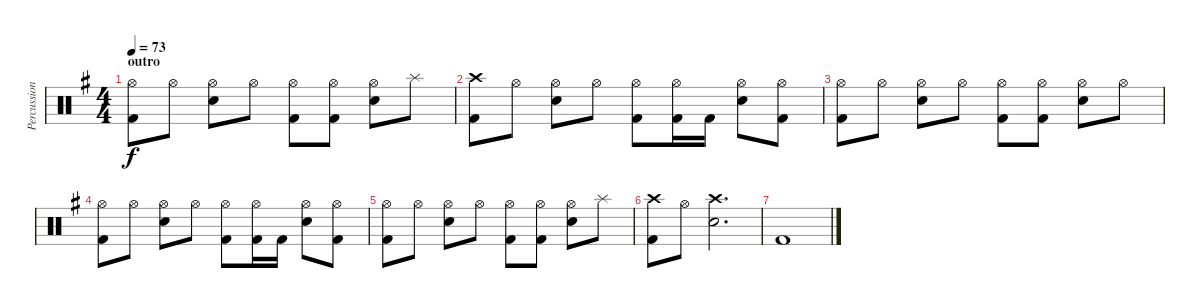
\track ("Percussions" "Percussion") {instrument percussion}
\staff {score}
\articulation defaults
\ts (4 4)
\section ("" "outro")
\tempo 73
\clef neutral
\ks g
("Hi-Hat (open)" "Kick (hit) 2").8{dy f} "Hi-Hat (open)".8 ("Hi-Hat (open)" "Snare (hit) 2").8 "Hi-Hat (open)".8 ("Hi-Hat (open)" "Kick (hit) 2").8 ("Hi-Hat (open)" "Kick (hit) 2").8 ("Hi-Hat (open)" "Snare (hit) 2").8 "Splash (hit)".8 |
("Crash high (hit)" "Kick (hit) 2").8 "Hi-Hat (open)".8 ("Hi-Hat (open)" "Snare (hit) 2").8 "Hi-Hat (open)".8 ("Hi-Hat (open)" "Kick (hit) 2").8 ("Hi-Hat (open)" "Kick (hit) 2").16 "Kick (hit) 2".16 ("Hi-Hat (open)" "Snare (hit) 2").8 ("Hi-Hat (open)" "Kick (hit) 2").8 |
("Hi-Hat (open)" "Kick (hit) 2").8 "Hi-Hat (open)".8 ("Hi-Hat (open)" "Snare (hit) 2").8 "Hi-Hat (open)".8 ("Hi-Hat (open)" "Kick (hit) 2").8 ("Hi-Hat (open)" "Kick (hit) 2").8 ("Hi-Hat (open)" "Snare (hit) 2").8 "Hi-Hat (open)".8 |
("Hi-Hat (open)" "Kick (hit) 2").8 "Hi-Hat (open)".8 ("Hi-Hat (open)" "Snare (hit) 2").8 "Hi-Hat (open)".8 ("Hi-Hat (open)" "Kick (hit) 2").8 ("Hi-Hat (open)" "Kick (hit) 2").16 "Kick (hit) 2".16 ("Hi-Hat (open)" "Snare (hit) 2").8 ("Hi-Hat (open)" "Kick (hit) 2").8 |
("Hi-Hat (open)" "Kick (hit) 2").8 "Hi-Hat (open)".8 ("Hi-Hat (open)" "Snare (hit) 2").8 "Hi-Hat (open)".8 ("Hi-Hat (open)" "Kick (hit) 2").8 ("Hi-Hat (open)" "Kick (hit) 2").8 ("Hi-Hat (open)" "Snare (hit) 2").8 "Splash (hit)".8 |
("Crash high (hit)" "Kick (hit) 2").8 "Hi-Hat (open)".8 ("Crash high (hit)" "Snare (hit) 2").2{d} |
"Kick (hit) 2".1
